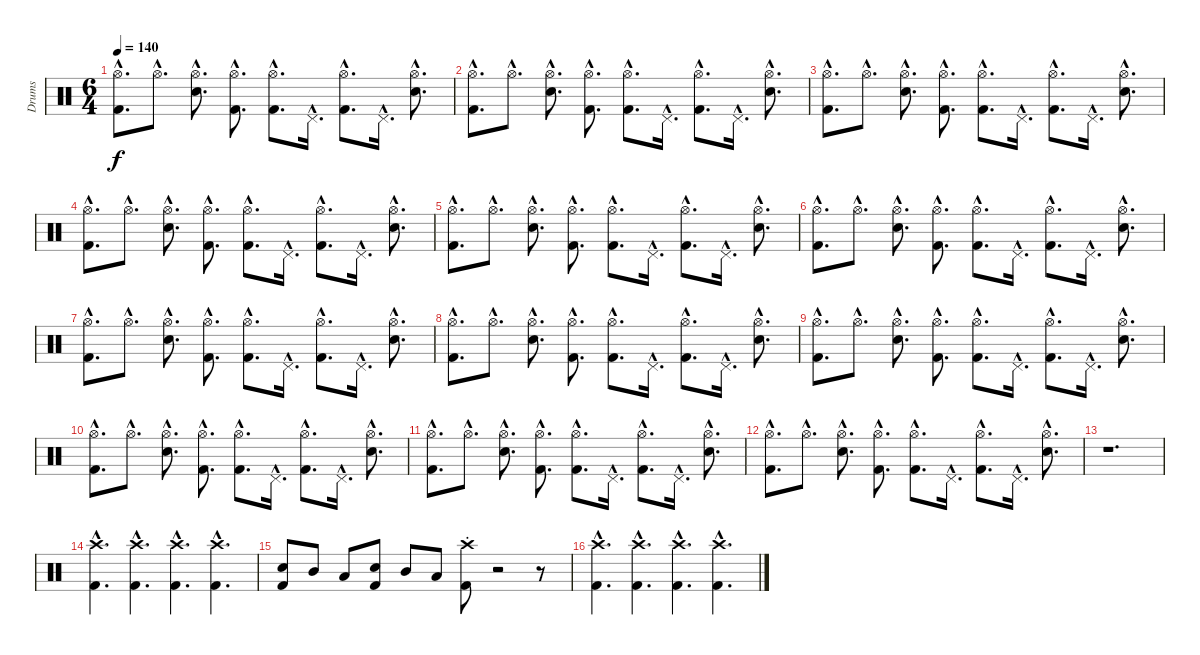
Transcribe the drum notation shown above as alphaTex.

\track ("Drums" "Drums") {instrument percussion}
\staff {score}
\articulation defaults
\ts (6 4)
\tempo 140
\clef neutral
\ks c
("Hi-Hat (open)"{hac} "Kick (hit) 2"{hac}).8{d dy f} "Hi-Hat (open)"{hac}.8{d} ("Hi-Hat (open)"{hac} "Snare (hit) 2"{hac}).8{d} ("Hi-Hat (open)"{hac} "Kick (hit) 2"{hac}).8{d} ("Hi-Hat (open)"{hac} "Kick (hit) 2"{hac}).8{d} "Pedal Hi-Hat (hit)"{hac}.16{d} ("Hi-Hat (open)"{hac} "Kick (hit) 2"{hac}).8{d} "Pedal Hi-Hat (hit)"{hac}.16{d} ("Hi-Hat (open)"{hac} "Snare (hit) 2"{hac}).8{d} |
("Hi-Hat (open)"{hac} "Kick (hit) 2"{hac}).8{d} "Hi-Hat (open)"{hac}.8{d} ("Hi-Hat (open)"{hac} "Snare (hit) 2"{hac}).8{d} ("Hi-Hat (open)"{hac} "Kick (hit) 2"{hac}).8{d} ("Hi-Hat (open)"{hac} "Kick (hit) 2"{hac}).8{d} "Pedal Hi-Hat (hit)"{hac}.16{d} ("Hi-Hat (open)"{hac} "Kick (hit) 2"{hac}).8{d} "Pedal Hi-Hat (hit)"{hac}.16{d} ("Hi-Hat (open)"{hac} "Snare (hit) 2"{hac}).8{d} |
("Hi-Hat (open)"{hac} "Kick (hit) 2"{hac}).8{d} "Hi-Hat (open)"{hac}.8{d} ("Hi-Hat (open)"{hac} "Snare (hit) 2"{hac}).8{d} ("Hi-Hat (open)"{hac} "Kick (hit) 2"{hac}).8{d} ("Hi-Hat (open)"{hac} "Kick (hit) 2"{hac}).8{d} "Pedal Hi-Hat (hit)"{hac}.16{d} ("Hi-Hat (open)"{hac} "Kick (hit) 2"{hac}).8{d} "Pedal Hi-Hat (hit)"{hac}.16{d} ("Hi-Hat (open)"{hac} "Snare (hit) 2"{hac}).8{d} |
("Hi-Hat (open)"{hac} "Kick (hit) 2"{hac}).8{d} "Hi-Hat (open)"{hac}.8{d} ("Hi-Hat (open)"{hac} "Snare (hit) 2"{hac}).8{d} ("Hi-Hat (open)"{hac} "Kick (hit) 2"{hac}).8{d} ("Hi-Hat (open)"{hac} "Kick (hit) 2"{hac}).8{d} "Pedal Hi-Hat (hit)"{hac}.16{d} ("Hi-Hat (open)"{hac} "Kick (hit) 2"{hac}).8{d} "Pedal Hi-Hat (hit)"{hac}.16{d} ("Hi-Hat (open)"{hac} "Snare (hit) 2"{hac}).8{d} |
("Hi-Hat (open)"{hac} "Kick (hit) 2"{hac}).8{d} "Hi-Hat (open)"{hac}.8{d} ("Hi-Hat (open)"{hac} "Snare (hit) 2"{hac}).8{d} ("Hi-Hat (open)"{hac} "Kick (hit) 2"{hac}).8{d} ("Hi-Hat (open)"{hac} "Kick (hit) 2"{hac}).8{d} "Pedal Hi-Hat (hit)"{hac}.16{d} ("Hi-Hat (open)"{hac} "Kick (hit) 2"{hac}).8{d} "Pedal Hi-Hat (hit)"{hac}.16{d} ("Hi-Hat (open)"{hac} "Snare (hit) 2"{hac}).8{d} |
("Hi-Hat (open)"{hac} "Kick (hit) 2"{hac}).8{d} "Hi-Hat (open)"{hac}.8{d} ("Hi-Hat (open)"{hac} "Snare (hit) 2"{hac}).8{d} ("Hi-Hat (open)"{hac} "Kick (hit) 2"{hac}).8{d} ("Hi-Hat (open)"{hac} "Kick (hit) 2"{hac}).8{d} "Pedal Hi-Hat (hit)"{hac}.16{d} ("Hi-Hat (open)"{hac} "Kick (hit) 2"{hac}).8{d} "Pedal Hi-Hat (hit)"{hac}.16{d} ("Hi-Hat (open)"{hac} "Snare (hit) 2"{hac}).8{d} |
("Hi-Hat (open)"{hac} "Kick (hit) 2"{hac}).8{d} "Hi-Hat (open)"{hac}.8{d} ("Hi-Hat (open)"{hac} "Snare (hit) 2"{hac}).8{d} ("Hi-Hat (open)"{hac} "Kick (hit) 2"{hac}).8{d} ("Hi-Hat (open)"{hac} "Kick (hit) 2"{hac}).8{d} "Pedal Hi-Hat (hit)"{hac}.16{d} ("Hi-Hat (open)"{hac} "Kick (hit) 2"{hac}).8{d} "Pedal Hi-Hat (hit)"{hac}.16{d} ("Hi-Hat (open)"{hac} "Snare (hit) 2"{hac}).8{d} |
("Hi-Hat (open)"{hac} "Kick (hit) 2"{hac}).8{d} "Hi-Hat (open)"{hac}.8{d} ("Hi-Hat (open)"{hac} "Snare (hit) 2"{hac}).8{d} ("Hi-Hat (open)"{hac} "Kick (hit) 2"{hac}).8{d} ("Hi-Hat (open)"{hac} "Kick (hit) 2"{hac}).8{d} "Pedal Hi-Hat (hit)"{hac}.16{d} ("Hi-Hat (open)"{hac} "Kick (hit) 2"{hac}).8{d} "Pedal Hi-Hat (hit)"{hac}.16{d} ("Hi-Hat (open)"{hac} "Snare (hit) 2"{hac}).8{d} |
("Hi-Hat (open)"{hac} "Kick (hit) 2"{hac}).8{d} "Hi-Hat (open)"{hac}.8{d} ("Hi-Hat (open)"{hac} "Snare (hit) 2"{hac}).8{d} ("Hi-Hat (open)"{hac} "Kick (hit) 2"{hac}).8{d} ("Hi-Hat (open)"{hac} "Kick (hit) 2"{hac}).8{d} "Pedal Hi-Hat (hit)"{hac}.16{d} ("Hi-Hat (open)"{hac} "Kick (hit) 2"{hac}).8{d} "Pedal Hi-Hat (hit)"{hac}.16{d} ("Hi-Hat (open)"{hac} "Snare (hit) 2"{hac}).8{d} |
("Hi-Hat (open)"{hac} "Kick (hit) 2"{hac}).8{d} "Hi-Hat (open)"{hac}.8{d} ("Hi-Hat (open)"{hac} "Snare (hit) 2"{hac}).8{d} ("Hi-Hat (open)"{hac} "Kick (hit) 2"{hac}).8{d} ("Hi-Hat (open)"{hac} "Kick (hit) 2"{hac}).8{d} "Pedal Hi-Hat (hit)"{hac}.16{d} ("Hi-Hat (open)"{hac} "Kick (hit) 2"{hac}).8{d} "Pedal Hi-Hat (hit)"{hac}.16{d} ("Hi-Hat (open)"{hac} "Snare (hit) 2"{hac}).8{d} |
("Hi-Hat (open)"{hac} "Kick (hit) 2"{hac}).8{d} "Hi-Hat (open)"{hac}.8{d} ("Hi-Hat (open)"{hac} "Snare (hit) 2"{hac}).8{d} ("Hi-Hat (open)"{hac} "Kick (hit) 2"{hac}).8{d} ("Hi-Hat (open)"{hac} "Kick (hit) 2"{hac}).8{d} "Pedal Hi-Hat (hit)"{hac}.16{d} ("Hi-Hat (open)"{hac} "Kick (hit) 2"{hac}).8{d} "Pedal Hi-Hat (hit)"{hac}.16{d} ("Hi-Hat (open)"{hac} "Snare (hit) 2"{hac}).8{d} |
("Hi-Hat (open)"{hac} "Kick (hit) 2"{hac}).8{d} "Hi-Hat (open)"{hac}.8{d} ("Hi-Hat (open)"{hac} "Snare (hit) 2"{hac}).8{d} ("Hi-Hat (open)"{hac} "Kick (hit) 2"{hac}).8{d} ("Hi-Hat (open)"{hac} "Kick (hit) 2"{hac}).8{d} "Pedal Hi-Hat (hit)"{hac}.16{d} ("Hi-Hat (open)"{hac} "Kick (hit) 2"{hac}).8{d} "Pedal Hi-Hat (hit)"{hac}.16{d} ("Hi-Hat (open)"{hac} "Snare (hit) 2"{hac}).8{d} |
r.1{d} |
("Crash high (hit)"{hac} "Kick (hit) 2"{hac}).4{d} ("Crash high (hit)"{hac} "Kick (hit) 2"{hac}).4{d} ("Crash high (hit)"{hac} "Kick (hit) 2"{hac}).4{d} ("Crash high (hit)"{hac} "Kick (hit) 2"{hac}).4{d} |
("Snare (hit) 2" "Kick (hit) 2").8 "Mid Tom (hit)".8 "Low Tom (hit)".8 ("Snare (hit) 2" "Kick (hit) 2").8 "Mid Tom (hit)".8 "Low Tom (hit)".8 ("Crash high (hit)"{st} "Kick (hit) 2").8 r.2 r.8 |
("Crash high (hit)"{hac} "Kick (hit) 2"{hac}).4{d} ("Crash high (hit)"{hac} "Kick (hit) 2"{hac}).4{d} ("Crash high (hit)"{hac} "Kick (hit) 2"{hac}).4{d} ("Crash high (hit)"{hac} "Kick (hit) 2"{hac}).4{d}
